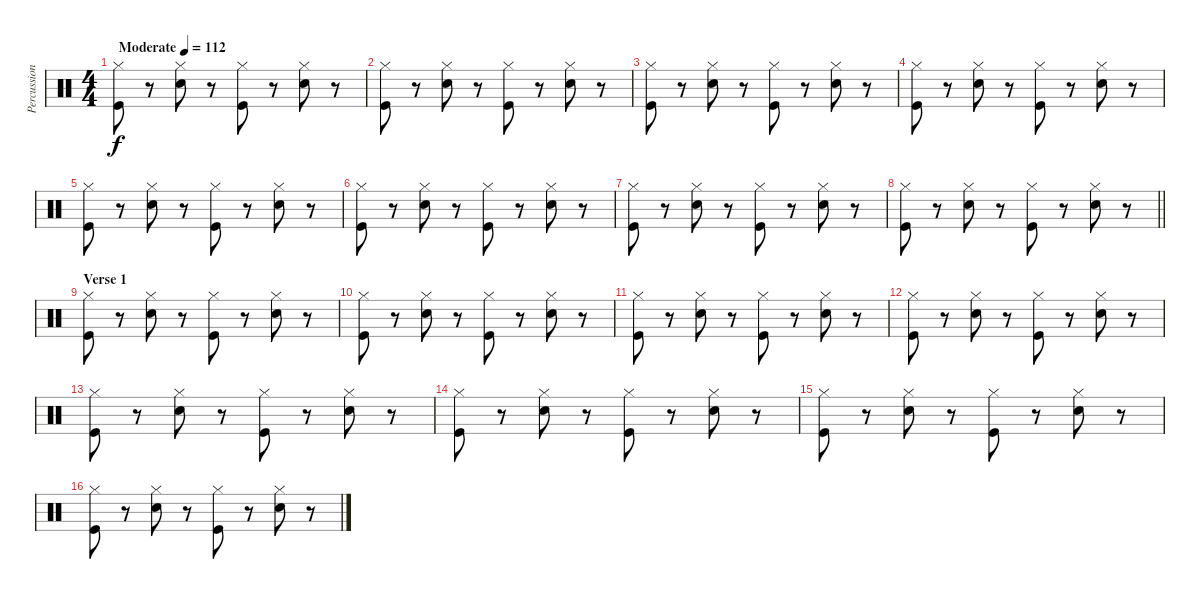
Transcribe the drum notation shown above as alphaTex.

\track ("Percussion" "Percussion") {instrument percussion}
\staff
\articulation defaults
\ts (4 4)
\tempo (112 "Moderate")
\clef neutral
\ks c
("Kick (hit)" "Hi-Hat (closed)").8{dy f} r.8 ("Electric Snare (hit)" "Hi-Hat (closed)").8 r.8 ("Kick (hit)" "Hi-Hat (closed)").8 r.8 ("Electric Snare (hit)" "Hi-Hat (closed)").8 r.8 |
("Kick (hit)" "Hi-Hat (closed)").8 r.8 ("Electric Snare (hit)" "Hi-Hat (closed)").8 r.8 ("Kick (hit)" "Hi-Hat (closed)").8 r.8 ("Electric Snare (hit)" "Hi-Hat (closed)").8 r.8 |
("Kick (hit)" "Hi-Hat (closed)").8 r.8 ("Electric Snare (hit)" "Hi-Hat (closed)").8 r.8 ("Kick (hit)" "Hi-Hat (closed)").8 r.8 ("Electric Snare (hit)" "Hi-Hat (closed)").8 r.8 |
("Kick (hit)" "Hi-Hat (closed)").8 r.8 ("Electric Snare (hit)" "Hi-Hat (closed)").8 r.8 ("Kick (hit)" "Hi-Hat (closed)").8 r.8 ("Electric Snare (hit)" "Hi-Hat (closed)").8 r.8 |
("Kick (hit)" "Hi-Hat (closed)").8 r.8 ("Electric Snare (hit)" "Hi-Hat (closed)").8 r.8 ("Kick (hit)" "Hi-Hat (closed)").8 r.8 ("Electric Snare (hit)" "Hi-Hat (closed)").8 r.8 |
("Kick (hit)" "Hi-Hat (closed)").8 r.8 ("Electric Snare (hit)" "Hi-Hat (closed)").8 r.8 ("Kick (hit)" "Hi-Hat (closed)").8 r.8 ("Electric Snare (hit)" "Hi-Hat (closed)").8 r.8 |
("Kick (hit)" "Hi-Hat (closed)").8 r.8 ("Electric Snare (hit)" "Hi-Hat (closed)").8 r.8 ("Kick (hit)" "Hi-Hat (closed)").8 r.8 ("Electric Snare (hit)" "Hi-Hat (closed)").8 r.8 |
\barLineRight lightlight
("Kick (hit)" "Hi-Hat (closed)").8 r.8 ("Electric Snare (hit)" "Hi-Hat (closed)").8 r.8 ("Kick (hit)" "Hi-Hat (closed)").8 r.8 ("Electric Snare (hit)" "Hi-Hat (closed)").8 r.8 |
\section ("" "Verse 1")
("Kick (hit)" "Hi-Hat (closed)").8 r.8 ("Electric Snare (hit)" "Hi-Hat (closed)").8 r.8 ("Kick (hit)" "Hi-Hat (closed)").8 r.8 ("Electric Snare (hit)" "Hi-Hat (closed)").8 r.8 |
("Kick (hit)" "Hi-Hat (closed)").8 r.8 ("Electric Snare (hit)" "Hi-Hat (closed)").8 r.8 ("Kick (hit)" "Hi-Hat (closed)").8 r.8 ("Electric Snare (hit)" "Hi-Hat (closed)").8 r.8 |
("Kick (hit)" "Hi-Hat (closed)").8 r.8 ("Electric Snare (hit)" "Hi-Hat (closed)").8 r.8 ("Kick (hit)" "Hi-Hat (closed)").8 r.8 ("Electric Snare (hit)" "Hi-Hat (closed)").8 r.8 |
("Kick (hit)" "Hi-Hat (closed)").8 r.8 ("Electric Snare (hit)" "Hi-Hat (closed)").8 r.8 ("Kick (hit)" "Hi-Hat (closed)").8 r.8 ("Electric Snare (hit)" "Hi-Hat (closed)").8 r.8 |
("Kick (hit)" "Hi-Hat (closed)").8 r.8 ("Electric Snare (hit)" "Hi-Hat (closed)").8 r.8 ("Kick (hit)" "Hi-Hat (closed)").8 r.8 ("Electric Snare (hit)" "Hi-Hat (closed)").8 r.8 |
("Kick (hit)" "Hi-Hat (closed)").8 r.8 ("Electric Snare (hit)" "Hi-Hat (closed)").8 r.8 ("Kick (hit)" "Hi-Hat (closed)").8 r.8 ("Electric Snare (hit)" "Hi-Hat (closed)").8 r.8 |
("Kick (hit)" "Hi-Hat (closed)").8 r.8 ("Electric Snare (hit)" "Hi-Hat (closed)").8 r.8 ("Kick (hit)" "Hi-Hat (closed)").8 r.8 ("Electric Snare (hit)" "Hi-Hat (closed)").8 r.8 |
("Kick (hit)" "Hi-Hat (closed)").8 r.8 ("Electric Snare (hit)" "Hi-Hat (closed)").8 r.8 ("Kick (hit)" "Hi-Hat (closed)").8 r.8 ("Electric Snare (hit)" "Hi-Hat (closed)").8 r.8
